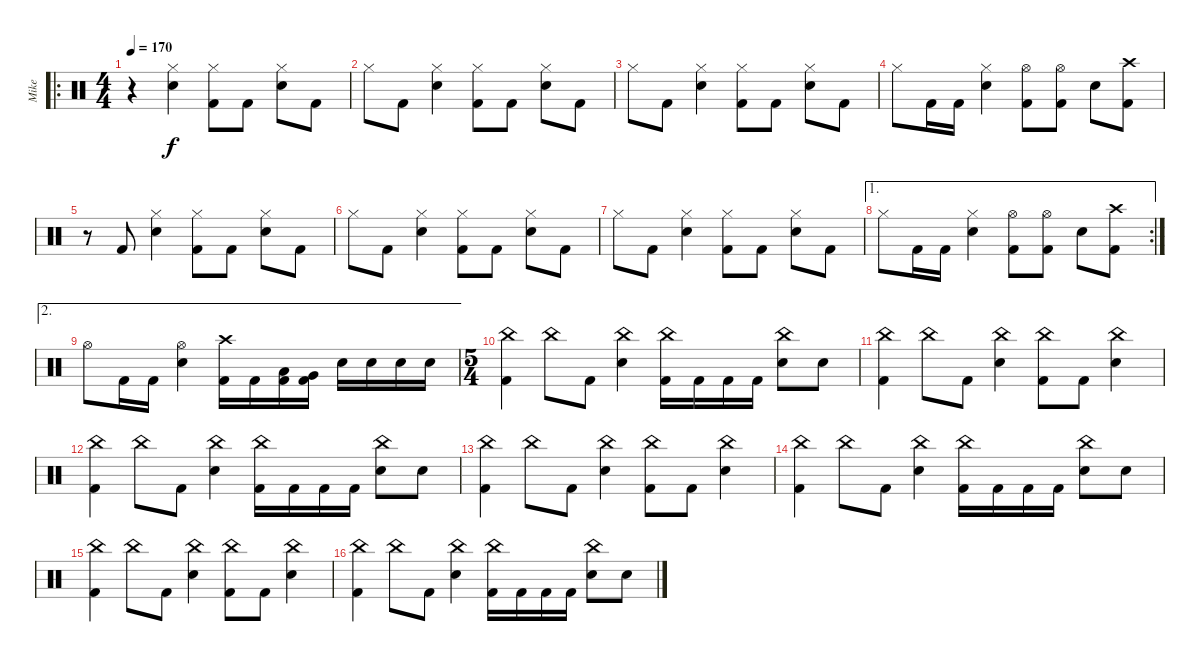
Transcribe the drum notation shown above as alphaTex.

\track ("Mike" "Mike") {instrument percussion}
\staff {score}
\articulation defaults
\ro
\ts (4 4)
\tempo 170
\clef neutral
\ks c
r.4{dy f} ("Electric Snare (hit)" "Hi-Hat (closed)").4 ("Kick (hit) 2" "Hi-Hat (closed)").8 "Kick (hit) 2".8 ("Electric Snare (hit)" "Hi-Hat (closed)").8 "Kick (hit) 2".8 |
"Hi-Hat (closed)".8 "Kick (hit) 2".8 ("Electric Snare (hit)" "Hi-Hat (closed)").4 ("Kick (hit) 2" "Hi-Hat (closed)").8 "Kick (hit) 2".8 ("Electric Snare (hit)" "Hi-Hat (closed)").8 "Kick (hit) 2".8 |
"Hi-Hat (closed)".8 "Kick (hit) 2".8 ("Electric Snare (hit)" "Hi-Hat (closed)").4 ("Kick (hit) 2" "Hi-Hat (closed)").8 "Kick (hit) 2".8 ("Electric Snare (hit)" "Hi-Hat (closed)").8 "Kick (hit) 2".8 |
"Hi-Hat (closed)".8 "Kick (hit) 2".16 "Kick (hit) 2".16 ("Electric Snare (hit)" "Hi-Hat (closed)").4 ("Kick (hit) 2" "Hi-Hat (open)").8 ("Kick (hit) 2" "Hi-Hat (open)").8 "Electric Snare (hit)".8 ("Kick (hit) 2" "Crash high (hit)").8 |
r.8 "Kick (hit) 2".8 ("Electric Snare (hit)" "Hi-Hat (closed)").4 ("Kick (hit) 2" "Hi-Hat (closed)").8 "Kick (hit) 2".8 ("Electric Snare (hit)" "Hi-Hat (closed)").8 "Kick (hit) 2".8 |
"Hi-Hat (closed)".8 "Kick (hit) 2".8 ("Electric Snare (hit)" "Hi-Hat (closed)").4 ("Kick (hit) 2" "Hi-Hat (closed)").8 "Kick (hit) 2".8 ("Electric Snare (hit)" "Hi-Hat (closed)").8 "Kick (hit) 2".8 |
"Hi-Hat (closed)".8 "Kick (hit) 2".8 ("Electric Snare (hit)" "Hi-Hat (closed)").4 ("Kick (hit) 2" "Hi-Hat (closed)").8 "Kick (hit) 2".8 ("Electric Snare (hit)" "Hi-Hat (closed)").8 "Kick (hit) 2".8 |
\ae 1
\rc 2 "Hi-Hat (closed)".8 "Kick (hit) 2".16 "Kick (hit) 2".16
("Electric Snare (hit)" "Hi-Hat (closed)").4 ("Kick (hit) 2" "Hi-Hat (open)").8 ("Kick (hit) 2" "Hi-Hat (open)").8 "Electric Snare (hit)".8 ("Kick (hit) 2" "Crash high (hit)").8 |
\ae 2 "Hi-Hat (open)".8 "Kick (hit) 2".16 "Kick (hit) 2".16
("Electric Snare (hit)" "Hi-Hat (open)").4 ("Kick (hit) 2" "Crash high (hit)").16 "Kick (hit) 2".16 ("Kick (hit) 2" "Low Tom (hit)").16 ("Kick (hit) 2" "Very Low Tom (hit)").16 "Electric Snare (hit)".16 "Electric Snare (hit)".16 "Electric Snare (hit)".16 "Electric Snare (hit)".16 |
\ts (5 4)
("Kick (hit) 2" "China (hit)").4 "China (hit)".8 "Kick (hit) 2".8 ("Electric Snare (hit)" "China (hit)").4 ("Kick (hit) 2" "China (hit)").16 "Kick (hit) 2".16 "Kick (hit) 2".16 "Kick (hit) 2".16 ("Electric Snare (hit)" "China (hit)").8 "Electric Snare (hit)".8 |
("Kick (hit) 2" "China (hit)").4 "China (hit)".8 "Kick (hit) 2".8 ("Electric Snare (hit)" "China (hit)").4 ("Kick (hit) 2" "China (hit)").8 "Kick (hit) 2".8 ("Electric Snare (hit)" "China (hit)").4 |
("Kick (hit) 2" "China (hit)").4 "China (hit)".8 "Kick (hit) 2".8 ("Electric Snare (hit)" "China (hit)").4 ("Kick (hit) 2" "China (hit)").16 "Kick (hit) 2".16 "Kick (hit) 2".16 "Kick (hit) 2".16 ("Electric Snare (hit)" "China (hit)").8 "Electric Snare (hit)".8 |
("Kick (hit) 2" "China (hit)").4 "China (hit)".8 "Kick (hit) 2".8 ("Electric Snare (hit)" "China (hit)").4 ("Kick (hit) 2" "China (hit)").8 "Kick (hit) 2".8 ("Electric Snare (hit)" "China (hit)").4 |
("Kick (hit) 2" "China (hit)").4 "China (hit)".8 "Kick (hit) 2".8 ("Electric Snare (hit)" "China (hit)").4 ("Kick (hit) 2" "China (hit)").16 "Kick (hit) 2".16 "Kick (hit) 2".16 "Kick (hit) 2".16 ("Electric Snare (hit)" "China (hit)").8 "Electric Snare (hit)".8 |
("Kick (hit) 2" "China (hit)").4 "China (hit)".8 "Kick (hit) 2".8 ("Electric Snare (hit)" "China (hit)").4 ("Kick (hit) 2" "China (hit)").8 "Kick (hit) 2".8 ("Electric Snare (hit)" "China (hit)").4 |
("Kick (hit) 2" "China (hit)").4 "China (hit)".8 "Kick (hit) 2".8 ("Electric Snare (hit)" "China (hit)").4 ("Kick (hit) 2" "China (hit)").16 "Kick (hit) 2".16 "Kick (hit) 2".16 "Kick (hit) 2".16 ("Electric Snare (hit)" "China (hit)").8 "Electric Snare (hit)".8
